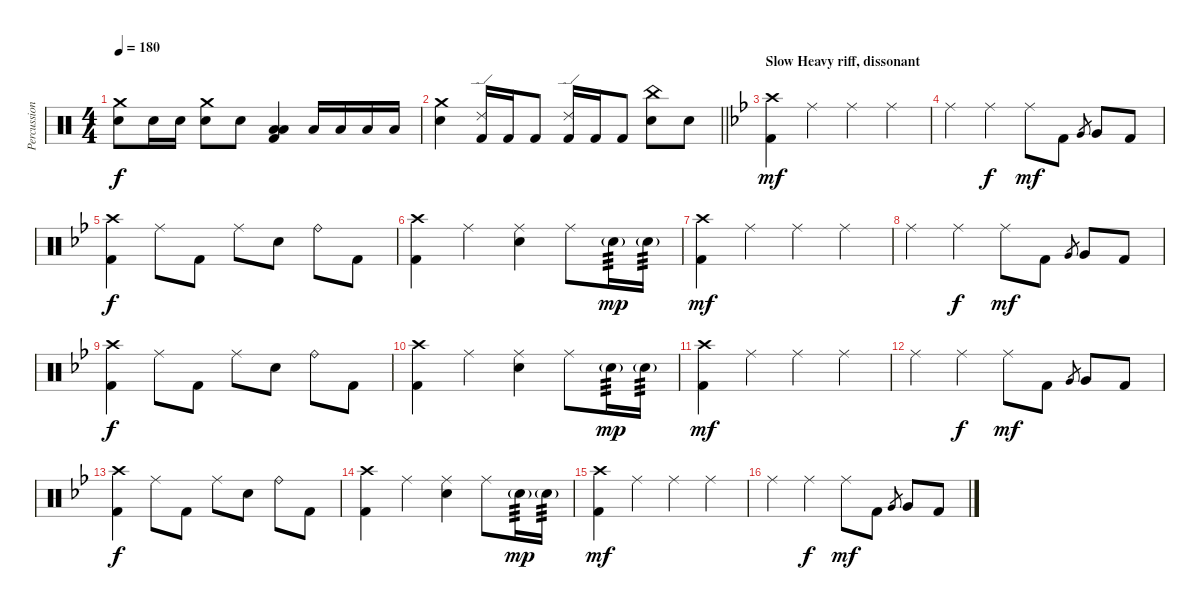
\track ("Percussion" "Percussion") {instrument percussion}
\staff {score}
\articulation defaults
\ts (4 4)
\tempo 180
\clef neutral
\ks c
("Crash medium (hit)" "Electric Snare (hit)").8{dy f} "Electric Snare (hit)".16 "Electric Snare (hit)".16 ("Crash medium (hit)" "Electric Snare (hit)").8 "Electric Snare (hit)".8 ("Low Tom (hit)" "Low Floor Tom (hit)" "Kick (hit) 2").4 "Low Tom (hit)".16 "Low Tom (hit)".16 "Low Floor Tom (hit)".16 "Low Floor Tom (hit)".16 |
\barLineRight lightlight
("Crash medium (hit)" "Electric Snare (hit)").4 ("Ride (edge) 2" "Kick (hit) 2").16 "Kick (hit) 2".16 "Kick (hit) 2".8 ("Ride (edge) 2" "Kick (hit) 2").16 "Kick (hit) 2".16 "Kick (hit) 2".8 ("China (hit)" "Electric Snare (hit)").8 "Electric Snare (hit)".8 |
\section ("" "Slow Heavy riff, dissonant")
\ks gminor
("Crash high (hit)" "Kick (hit) 2").4{dy mf} "Ride (middle)".4 "Ride (middle)".4 "Ride (middle)".4 |
"Ride (middle)".4 "Ride (middle)".4{dy f} "Ride (middle)".8{dy mf} "Kick (hit) 2".8 "Very Low Tom (hit)".8{gr} "Very Low Tom (hit)".8 "Kick (hit) 2".8 |
("Crash high (hit)" "Kick (hit) 2").4{dy f} "Ride (middle)".8 "Kick (hit) 2".8 "Ride (middle)".8 "Electric Snare (hit)".8 "Ride (bell)".8 "Kick (hit) 2".8 |
("Kick (hit) 2" "Crash high (hit)").4 "Ride (middle)".4 ("Ride (middle)" "Electric Snare (hit)").4 "Ride (middle)".8 "Electric Snare (hit)"{g}.16{tp 3 dy mp} "Electric Snare (hit)"{g}.16{tp 3} |
("Crash high (hit)" "Kick (hit) 2").4{dy mf} "Ride (middle)".4 "Ride (middle)".4 "Ride (middle)".4 |
"Ride (middle)".4 "Ride (middle)".4{dy f} "Ride (middle)".8{dy mf} "Kick (hit) 2".8 "Very Low Tom (hit)".8{gr} "Very Low Tom (hit)".8 "Kick (hit) 2".8 |
("Crash high (hit)" "Kick (hit) 2").4{dy f} "Ride (middle)".8 "Kick (hit) 2".8 "Ride (middle)".8 "Electric Snare (hit)".8 "Ride (bell)".8 "Kick (hit) 2".8 |
("Kick (hit) 2" "Crash high (hit)").4 "Ride (middle)".4 ("Ride (middle)" "Electric Snare (hit)").4 "Ride (middle)".8 "Electric Snare (hit)"{g}.16{tp 3 dy mp} "Electric Snare (hit)"{g}.16{tp 3} |
("Crash high (hit)" "Kick (hit) 2").4{dy mf} "Ride (middle)".4 "Ride (middle)".4 "Ride (middle)".4 |
"Ride (middle)".4 "Ride (middle)".4{dy f} "Ride (middle)".8{dy mf} "Kick (hit) 2".8 "Very Low Tom (hit)".8{gr} "Very Low Tom (hit)".8 "Kick (hit) 2".8 |
("Crash high (hit)" "Kick (hit) 2").4{dy f} "Ride (middle)".8 "Kick (hit) 2".8 "Ride (middle)".8 "Electric Snare (hit)".8 "Ride (bell)".8 "Kick (hit) 2".8 |
("Kick (hit) 2" "Crash high (hit)").4 "Ride (middle)".4 ("Ride (middle)" "Electric Snare (hit)").4 "Ride (middle)".8 "Electric Snare (hit)"{g}.16{tp 3 dy mp} "Electric Snare (hit)"{g}.16{tp 3} |
("Crash high (hit)" "Kick (hit) 2").4{dy mf} "Ride (middle)".4 "Ride (middle)".4 "Ride (middle)".4 |
"Ride (middle)".4 "Ride (middle)".4{dy f} "Ride (middle)".8{dy mf} "Kick (hit) 2".8 "Very Low Tom (hit)".8{gr} "Very Low Tom (hit)".8 "Kick (hit) 2".8
